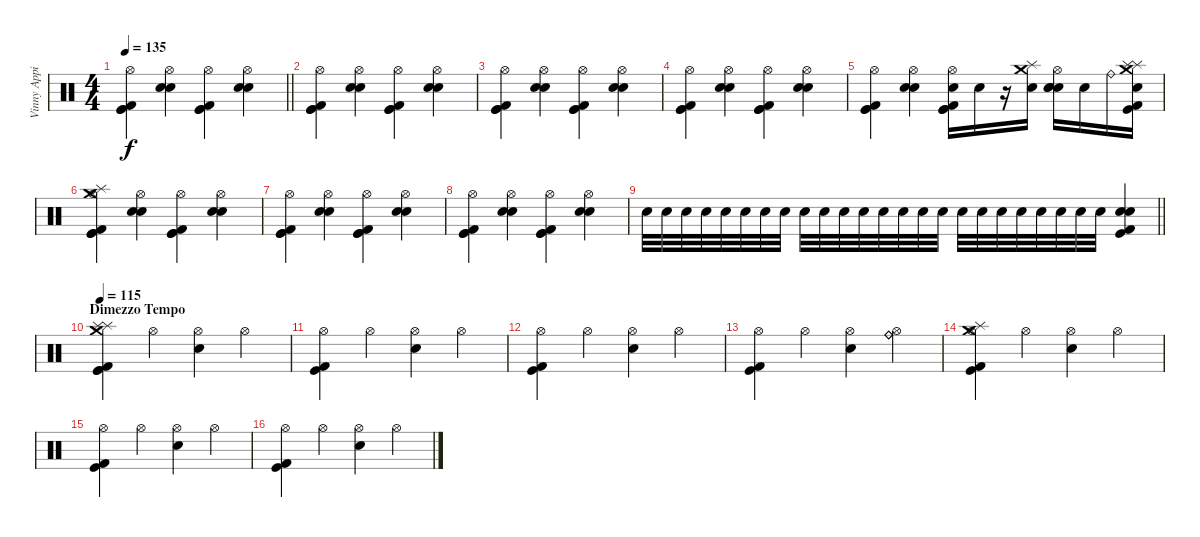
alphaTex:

\track ("Vinny Appice" "Vinny Appi") {instrument percussion}
\staff {score}
\articulation defaults
\ts (4 4)
\tempo 135
\clef neutral
\barLineRight lightlight
\ks c
("Hi-Hat (open)" "Kick (hit)" "Kick (hit) 2" "Kick (hit)").4{dy f} ("Hi-Hat (open)" "Snare (hit) 2" "Snare (hit) 2").4 ("Hi-Hat (open)" "Kick (hit)" "Kick (hit) 2" "Kick (hit)").4 ("Hi-Hat (open)" "Snare (hit) 2" "Snare (hit) 2").4 |
\section ("" "")
("Hi-Hat (open)" "Kick (hit)" "Kick (hit) 2" "Kick (hit)").4 ("Hi-Hat (open)" "Snare (hit) 2" "Snare (hit) 2").4 ("Hi-Hat (open)" "Kick (hit)" "Kick (hit) 2" "Kick (hit)").4 ("Hi-Hat (open)" "Snare (hit) 2" "Snare (hit) 2").4 |
("Hi-Hat (open)" "Kick (hit)" "Kick (hit) 2" "Kick (hit)").4 ("Hi-Hat (open)" "Snare (hit) 2" "Snare (hit) 2").4 ("Hi-Hat (open)" "Kick (hit)" "Kick (hit) 2" "Kick (hit)").4 ("Hi-Hat (open)" "Snare (hit) 2" "Snare (hit) 2").4 |
("Hi-Hat (open)" "Kick (hit)" "Kick (hit) 2" "Kick (hit)").4 ("Hi-Hat (open)" "Snare (hit) 2" "Snare (hit) 2").4 ("Hi-Hat (open)" "Kick (hit)" "Kick (hit) 2" "Kick (hit)").4 ("Hi-Hat (open)" "Snare (hit) 2" "Snare (hit) 2").4 |
("Hi-Hat (open)" "Kick (hit)" "Kick (hit) 2" "Kick (hit)").4 ("Hi-Hat (open)" "Snare (hit) 2" "Snare (hit) 2").4 ("Hi-Hat (open)" "Kick (hit)" "Kick (hit) 2" "Kick (hit)" "Snare (hit) 2").16 "Snare (hit) 2".16 r.16 ("Crash medium (hit)" "Snare (hit) 2" "Splash (hit)").16 ("Hi-Hat (open)" "Snare (hit) 2" "Snare (hit) 2" "Snare (hit) 2").16 "Snare (hit) 2".16 "Ride (bell)".16 ("Kick (hit) 2" "Kick (hit)" "Splash (hit)" "Splash (hit)" "Snare (hit) 2" "Crash medium (hit)").16 |
("Hi-Hat (open)" "Kick (hit)" "Kick (hit) 2" "Kick (hit)" "Splash (hit)" "Crash medium (hit)").4 ("Hi-Hat (open)" "Snare (hit) 2" "Snare (hit) 2").4 ("Hi-Hat (open)" "Kick (hit)" "Kick (hit) 2" "Kick (hit)").4 ("Hi-Hat (open)" "Snare (hit) 2" "Snare (hit) 2").4 |
("Hi-Hat (open)" "Kick (hit)" "Kick (hit) 2" "Kick (hit)").4 ("Hi-Hat (open)" "Snare (hit) 2" "Snare (hit) 2").4 ("Hi-Hat (open)" "Kick (hit)" "Kick (hit) 2" "Kick (hit)").4 ("Hi-Hat (open)" "Snare (hit) 2" "Snare (hit) 2").4 |
("Hi-Hat (open)" "Kick (hit)" "Kick (hit) 2" "Kick (hit)").4 ("Hi-Hat (open)" "Snare (hit) 2" "Snare (hit) 2").4 ("Hi-Hat (open)" "Kick (hit)" "Kick (hit) 2" "Kick (hit)").4 ("Hi-Hat (open)" "Snare (hit) 2" "Snare (hit) 2").4 |
\barLineRight lightlight "Snare (hit) 2".32 "Snare (hit) 2".32 "Snare (hit) 2".32 "Snare (hit) 2".32 "Snare (hit) 2".32 "Snare (hit) 2".32 "Snare (hit) 2".32 "Snare (hit) 2".32 "Snare (hit) 2".32 "Snare (hit) 2".32 "Snare (hit) 2".32 "Snare (hit) 2".32 "Snare (hit) 2".32 "Snare (hit) 2".32 "Snare (hit) 2".32 "Snare (hit) 2".32 "Snare (hit) 2".32 "Snare (hit) 2".32 "Snare (hit) 2".32 "Snare (hit) 2".32 "Snare (hit) 2".32 "Snare (hit) 2".32 "Snare (hit) 2".32 "Snare (hit) 2".32
("Snare (hit) 2" "Kick (hit) 2" "Kick (hit)" "Snare (hit) 2").4 |
\section ("" "Dimezzo Tempo")
\tempo 115
("Splash (hit)" "Crash medium (hit)" "Kick (hit)" "Kick (hit) 2" "Kick (hit)" "Splash (hit)").4 "Hi-Hat (open)".4 ("Hi-Hat (open)" "Snare (hit) 2").4 "Hi-Hat (open)".4 |
("Hi-Hat (open)" "Kick (hit)" "Kick (hit) 2").4 "Hi-Hat (open)".4 ("Hi-Hat (open)" "Snare (hit) 2").4 "Hi-Hat (open)".4 |
("Hi-Hat (open)" "Kick (hit)" "Kick (hit) 2").4 "Hi-Hat (open)".4 ("Hi-Hat (open)" "Snare (hit) 2").4 "Hi-Hat (open)".4 |
("Hi-Hat (open)" "Kick (hit)" "Kick (hit) 2").4 "Hi-Hat (open)".4 ("Hi-Hat (open)" "Snare (hit) 2").4 ("Hi-Hat (open)" "Ride (bell)" "Ride (bell)").4 |
("Hi-Hat (open)" "Splash (hit)" "Kick (hit)" "Kick (hit) 2" "Crash medium (hit)").4 "Hi-Hat (open)".4 ("Hi-Hat (open)" "Snare (hit) 2").4 "Hi-Hat (open)".4 |
("Hi-Hat (open)" "Kick (hit)" "Kick (hit) 2").4 "Hi-Hat (open)".4 ("Hi-Hat (open)" "Snare (hit) 2").4 "Hi-Hat (open)".4 |
("Hi-Hat (open)" "Kick (hit)" "Kick (hit) 2").4 "Hi-Hat (open)".4 ("Hi-Hat (open)" "Snare (hit) 2").4 "Hi-Hat (open)".4
